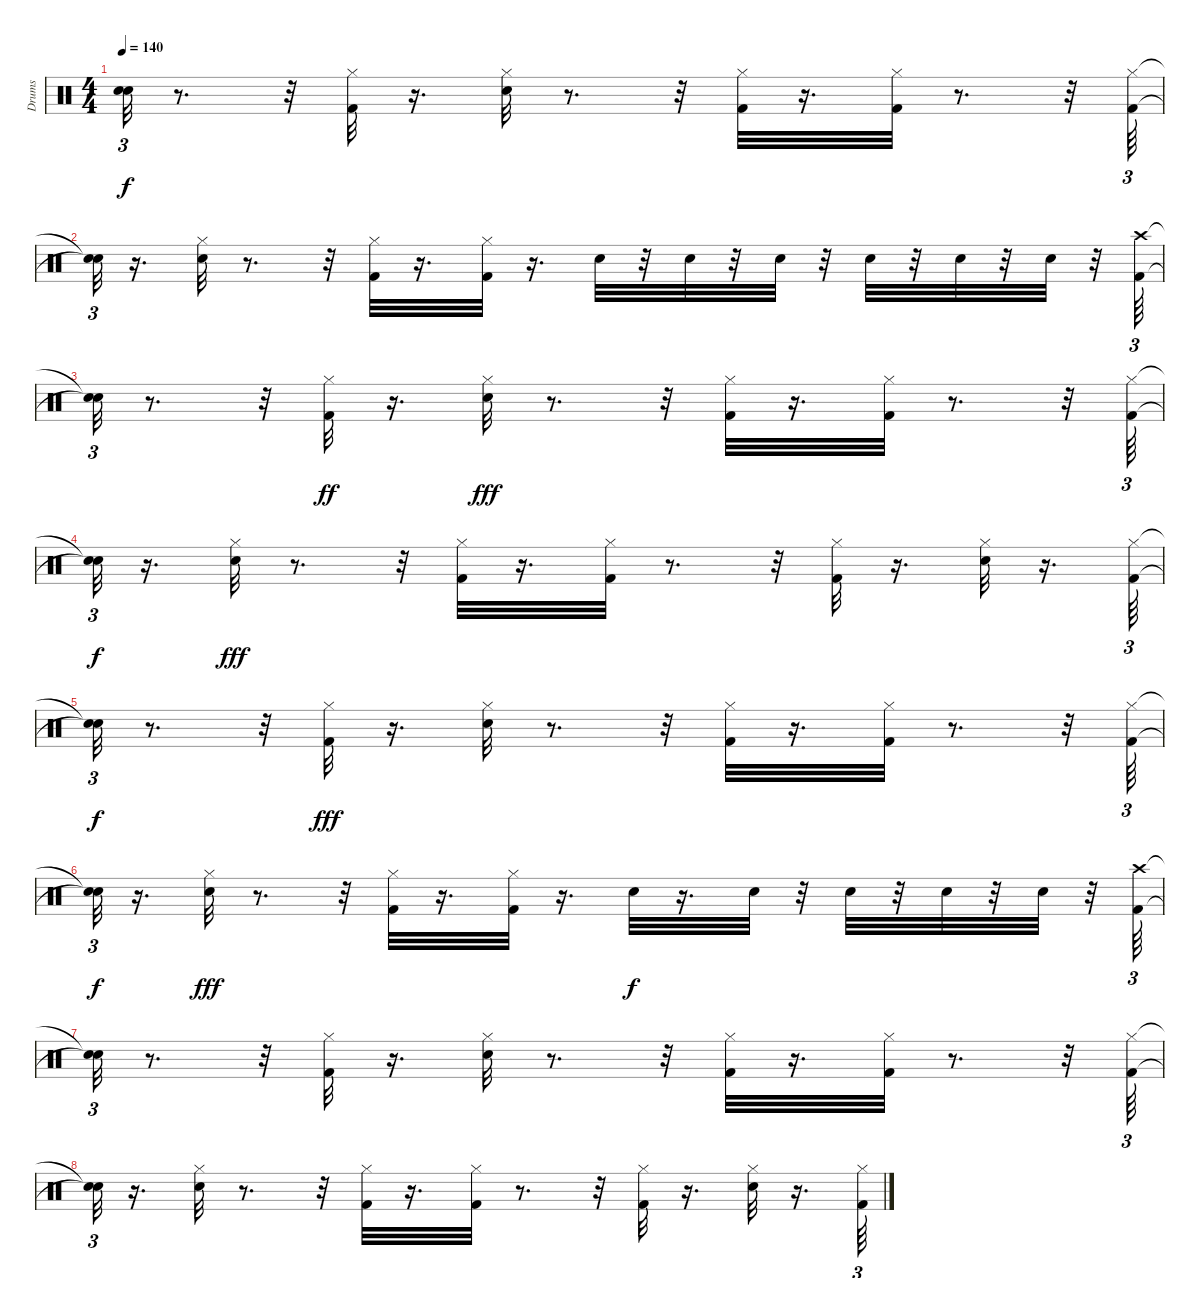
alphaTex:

\track ("Drums" "Drums") {instrument percussion}
\staff {score}
\articulation defaults
\ts (4 4)
\tempo 140
\clef neutral
\ks c
("Snare (hit)"{t} "Snare (hit)"{t}).32{tu (3 2) dy f} r.8{d} r.32 ("Hi-Hat (closed)" "Kick (hit) 2").32 r.16{d} ("Hi-Hat (closed)" "Snare (hit) 2").32 r.8{d} r.32 ("Hi-Hat (closed)" "Kick (hit) 2").32 r.16{d} ("Kick (hit) 2" "Hi-Hat (closed)").32 r.8{d} r.32 ("Hi-Hat (closed)" "Kick (hit) 2").64{tu (3 2)} |
("Snare (hit)"{t} "Snare (hit)"{t}).32{tu (3 2)} r.16{d} ("Hi-Hat (closed)" "Snare (hit) 2").32 r.8{d} r.32 ("Hi-Hat (closed)" "Kick (hit) 2").32 r.16{d} ("Hi-Hat (closed)" "Kick (hit) 2").32 r.16{d} "Snare (hit) 2".32 r.32 "Snare (hit) 2".32 r.32 "Snare (hit) 2".32 r.32 "Snare (hit) 2".32 r.32 "Snare (hit) 2".32 r.32 "Snare (hit) 2".32 r.32 ("Crash high (hit)" "Kick (hit) 2").64{tu (3 2)} |
("Snare (hit)"{t} "Snare (hit)"{t}).32{tu (3 2)} r.8{d} r.32 ("Hi-Hat (closed)" "Kick (hit) 2").32{dy ff} r.16{d} ("Hi-Hat (closed)" "Snare (hit) 2").32{dy fff} r.8{d} r.32 ("Hi-Hat (closed)" "Kick (hit) 2").32 r.16{d} ("Hi-Hat (closed)" "Kick (hit) 2").32 r.8{d} r.32 ("Hi-Hat (closed)" "Kick (hit) 2").64{tu (3 2)} |
("Snare (hit)"{t} "Snare (hit)"{t}).32{tu (3 2) dy f} r.16{d} ("Hi-Hat (closed)" "Snare (hit) 2").32{dy fff} r.8{d} r.32 ("Hi-Hat (closed)" "Kick (hit) 2").32 r.16{d} ("Hi-Hat (closed)" "Kick (hit) 2").32 r.8{d} r.32 ("Hi-Hat (closed)" "Kick (hit) 2").32 r.16{d} ("Hi-Hat (closed)" "Snare (hit) 2").32 r.16{d} ("Hi-Hat (closed)" "Kick (hit) 2").64{tu (3 2)} |
("Snare (hit)"{t} "Snare (hit)"{t}).32{tu (3 2) dy f} r.8{d} r.32 ("Hi-Hat (closed)" "Kick (hit) 2").32{dy fff} r.16{d} ("Hi-Hat (closed)" "Snare (hit) 2").32 r.8{d} r.32 ("Hi-Hat (closed)" "Kick (hit) 2").32 r.16{d} ("Hi-Hat (closed)" "Kick (hit) 2").32 r.8{d} r.32 ("Hi-Hat (closed)" "Kick (hit) 2").64{tu (3 2)} |
("Snare (hit)"{t} "Snare (hit)"{t}).32{tu (3 2) dy f} r.16{d} ("Hi-Hat (closed)" "Snare (hit) 2").32{dy fff} r.8{d} r.32 ("Hi-Hat (closed)" "Kick (hit) 2").32 r.16{d} ("Hi-Hat (closed)" "Kick (hit) 2").32 r.16{d} "Snare (hit) 2".32{dy f} r.16{d} "Snare (hit) 2".32 r.32 "Snare (hit) 2".32 r.32 "Snare (hit) 2".32 r.32 "Snare (hit) 2".32 r.32 ("Crash high (hit)" "Kick (hit) 2").64{tu (3 2)} |
("Snare (hit)"{t} "Snare (hit)"{t}).32{tu (3 2)} r.8{d} r.32 ("Hi-Hat (closed)" "Kick (hit) 2").32 r.16{d} ("Hi-Hat (closed)" "Snare (hit) 2").32 r.8{d} r.32 ("Hi-Hat (closed)" "Kick (hit) 2").32 r.16{d} ("Hi-Hat (closed)" "Kick (hit) 2").32 r.8{d} r.32 ("Hi-Hat (closed)" "Kick (hit) 2").64{tu (3 2)} |
("Snare (hit)"{t} "Snare (hit)"{t}).32{tu (3 2)} r.16{d} ("Hi-Hat (closed)" "Snare (hit) 2").32 r.8{d} r.32 ("Hi-Hat (closed)" "Kick (hit) 2").32 r.16{d} ("Hi-Hat (closed)" "Kick (hit) 2").32 r.8{d} r.32 ("Hi-Hat (closed)" "Kick (hit) 2").32 r.16{d} ("Hi-Hat (closed)" "Snare (hit) 2").32 r.16{d} ("Hi-Hat (closed)" "Kick (hit) 2").64{tu (3 2)}
